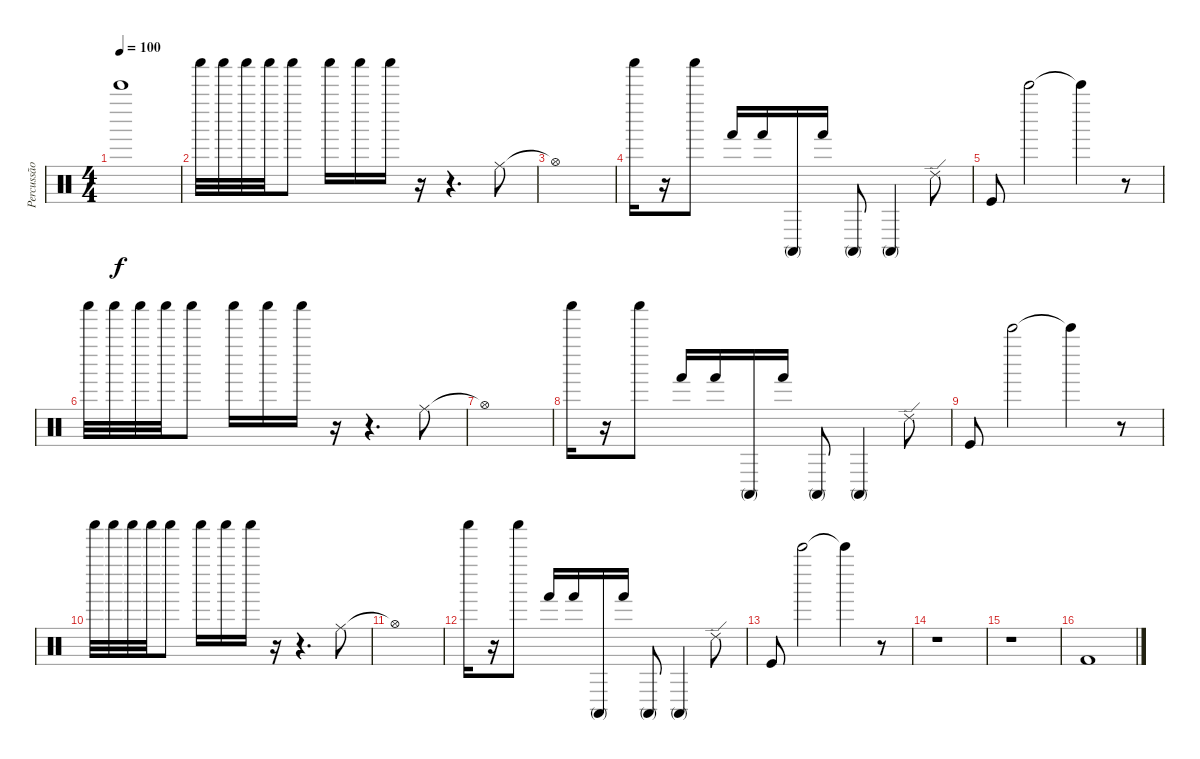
\track ("Percussão" "Percussão") {instrument percussion}
\staff {score}
\articulation defaults
\ts (4 4)
\tempo 100
\clef neutral
\ks c "Bell Tree (hit)".1{dy f}
|
"Shaker (hit)".32 "Shaker (hit)".32 "Shaker (hit)".32 "Shaker (hit)".32 "Shaker (hit)".8 "Shaker (hit)".16 "Shaker (hit)".16 "Shaker (hit)".16 r.16 r.4{d} "Ride (middle)".8 |
"Hi-Hat (open)"{t}.1 |
"Shaker (hit)".16 r.16 "Shaker (hit)".8 "Hand (hit)".16 "Hand (hit)".16 "Conga high (mute)".16 "Hand (hit)".16 "Conga high (mute)".8 "Conga high (mute)".4 "Ride (edge) 2".8 |
"Kick (hit)".8 "Bell Tree (hit)".2 "Bell Tree (hit)"{t}.4 r.8 |
"Shaker (hit)".32 "Shaker (hit)".32 "Shaker (hit)".32 "Shaker (hit)".32 "Shaker (hit)".8 "Shaker (hit)".16 "Shaker (hit)".16 "Shaker (hit)".16 r.16 r.4{d} "Ride (middle)".8 |
"Hi-Hat (open)"{t}.1 |
"Shaker (hit)".16 r.16 "Shaker (hit)".8 "Hand (hit)".16 "Hand (hit)".16 "Conga high (mute)".16 "Hand (hit)".16 "Conga high (mute)".8 "Conga high (mute)".4 "Ride (edge) 2".8 |
"Kick (hit)".8 "Bell Tree (hit)".2 "Bell Tree (hit)"{t}.4 r.8 |
"Shaker (hit)".32 "Shaker (hit)".32 "Shaker (hit)".32 "Shaker (hit)".32 "Shaker (hit)".8 "Shaker (hit)".16 "Shaker (hit)".16 "Shaker (hit)".16 r.16 r.4{d} "Ride (middle)".8 |
"Hi-Hat (open)"{t}.1 |
"Shaker (hit)".16 r.16 "Shaker (hit)".8 "Hand (hit)".16 "Hand (hit)".16 "Conga high (mute)".16 "Hand (hit)".16 "Conga high (mute)".8 "Conga high (mute)".4 "Ride (edge) 2".8 |
"Kick (hit)".8 "Bell Tree (hit)".2 "Bell Tree (hit)"{t}.4 r.8 |
r.1 |
r.1 |
"Kick (hit) 2".1
